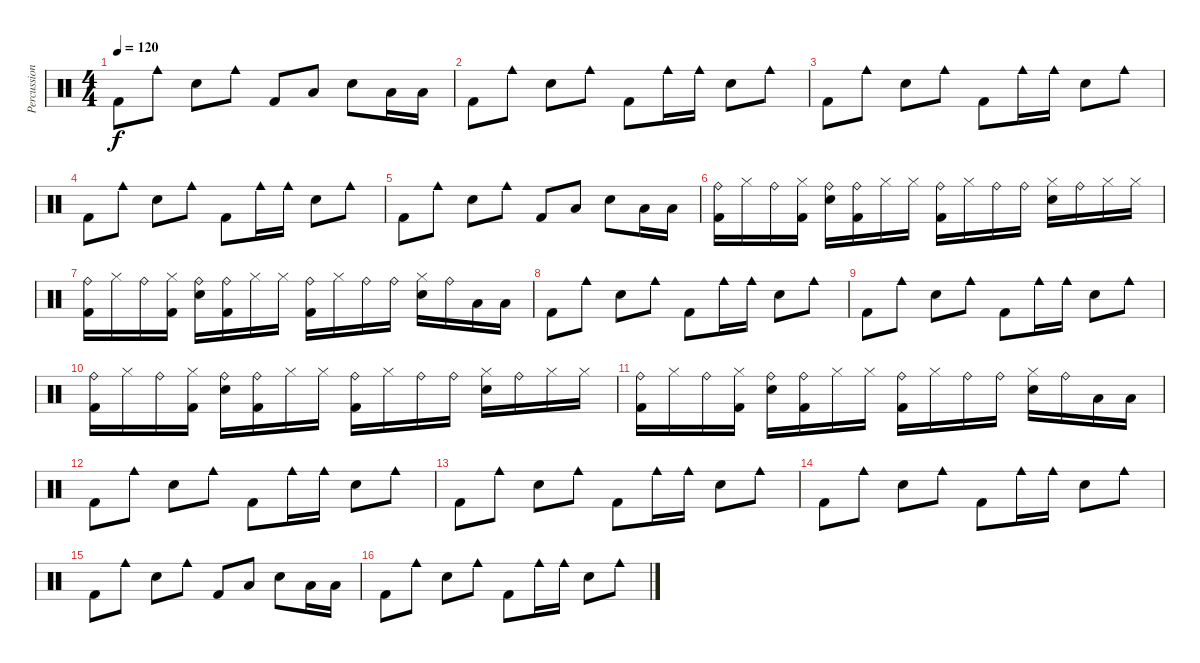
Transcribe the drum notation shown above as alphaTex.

\track ("Percussion" "Percussion") {instrument percussion}
\staff {score}
\articulation defaults
\ts (4 4)
\tempo 120
\clef neutral
\ks c "Kick (hit) 2".8{dy f} "Cowbell medium (hit)".8 "Electric Snare (hit)".8 "Cowbell medium (hit)".8 "Kick (hit) 2".8 "Low Floor Tom (hit)".8 "Electric Snare (hit)".8 "Low Floor Tom (hit)".16 "Low Floor Tom (hit)".16
|
"Kick (hit) 2".8 "Cowbell medium (hit)".8 "Electric Snare (hit)".8 "Cowbell medium (hit)".8 "Kick (hit) 2".8 "Cowbell medium (hit)".16 "Cowbell medium (hit)".16 "Electric Snare (hit)".8 "Cowbell medium (hit)".8 |
"Kick (hit) 2".8 "Cowbell medium (hit)".8 "Electric Snare (hit)".8 "Cowbell medium (hit)".8 "Kick (hit) 2".8 "Cowbell medium (hit)".16 "Cowbell medium (hit)".16 "Electric Snare (hit)".8 "Cowbell medium (hit)".8 |
"Kick (hit) 2".8 "Cowbell medium (hit)".8 "Electric Snare (hit)".8 "Cowbell medium (hit)".8 "Kick (hit) 2".8 "Cowbell medium (hit)".16 "Cowbell medium (hit)".16 "Electric Snare (hit)".8 "Cowbell medium (hit)".8 |
"Kick (hit) 2".8 "Cowbell medium (hit)".8 "Electric Snare (hit)".8 "Cowbell medium (hit)".8 "Kick (hit) 2".8 "Low Floor Tom (hit)".8 "Electric Snare (hit)".8 "Low Floor Tom (hit)".16 "Low Floor Tom (hit)".16 |
("Kick (hit) 2" "Ride (bell)").16 "Hi-Hat (closed)".16 "Ride (bell)".16 ("Kick (hit) 2" "Hi-Hat (closed)").16 ("Snare (hit) 2" "Ride (bell)").16 ("Ride (bell)" "Kick (hit) 2").16 "Hi-Hat (closed)".16 "Hi-Hat (closed)".16 ("Kick (hit) 2" "Ride (bell)").16 "Hi-Hat (closed)".16 "Ride (bell)".16 "Ride (bell)".16 ("Hi-Hat (closed)" "Snare (hit) 2").16 "Ride (bell)".16 "Hi-Hat (closed)".16 "Hi-Hat (closed)".16 |
("Kick (hit) 2" "Ride (bell)").16 "Hi-Hat (closed)".16 "Ride (bell)".16 ("Kick (hit) 2" "Hi-Hat (closed)").16 ("Snare (hit) 2" "Ride (bell)").16 ("Ride (bell)" "Kick (hit) 2").16 "Hi-Hat (closed)".16 "Hi-Hat (closed)".16 ("Kick (hit) 2" "Ride (bell)").16 "Hi-Hat (closed)".16 "Ride (bell)".16 "Ride (bell)".16 ("Hi-Hat (closed)" "Snare (hit) 2").16 "Ride (bell)".16 "Low Floor Tom (hit)".16 "Low Floor Tom (hit)".16 |
"Kick (hit) 2".8 "Cowbell medium (hit)".8 "Electric Snare (hit)".8 "Cowbell medium (hit)".8 "Kick (hit) 2".8 "Cowbell medium (hit)".16 "Cowbell medium (hit)".16 "Electric Snare (hit)".8 "Cowbell medium (hit)".8 |
"Kick (hit) 2".8 "Cowbell medium (hit)".8 "Electric Snare (hit)".8 "Cowbell medium (hit)".8 "Kick (hit) 2".8 "Cowbell medium (hit)".16 "Cowbell medium (hit)".16 "Electric Snare (hit)".8 "Cowbell medium (hit)".8 |
("Kick (hit) 2" "Ride (bell)").16 "Hi-Hat (closed)".16 "Ride (bell)".16 ("Kick (hit) 2" "Hi-Hat (closed)").16 ("Snare (hit) 2" "Ride (bell)").16 ("Ride (bell)" "Kick (hit) 2").16 "Hi-Hat (closed)".16 "Hi-Hat (closed)".16 ("Kick (hit) 2" "Ride (bell)").16 "Hi-Hat (closed)".16 "Ride (bell)".16 "Ride (bell)".16 ("Hi-Hat (closed)" "Snare (hit) 2").16 "Ride (bell)".16 "Hi-Hat (closed)".16 "Hi-Hat (closed)".16 |
("Kick (hit) 2" "Ride (bell)").16 "Hi-Hat (closed)".16 "Ride (bell)".16 ("Kick (hit) 2" "Hi-Hat (closed)").16 ("Snare (hit) 2" "Ride (bell)").16 ("Ride (bell)" "Kick (hit) 2").16 "Hi-Hat (closed)".16 "Hi-Hat (closed)".16 ("Kick (hit) 2" "Ride (bell)").16 "Hi-Hat (closed)".16 "Ride (bell)".16 "Ride (bell)".16 ("Hi-Hat (closed)" "Snare (hit) 2").16 "Ride (bell)".16 "Low Floor Tom (hit)".16 "Low Floor Tom (hit)".16 |
"Kick (hit) 2".8 "Cowbell medium (hit)".8 "Electric Snare (hit)".8 "Cowbell medium (hit)".8 "Kick (hit) 2".8 "Cowbell medium (hit)".16 "Cowbell medium (hit)".16 "Electric Snare (hit)".8 "Cowbell medium (hit)".8 |
"Kick (hit) 2".8 "Cowbell medium (hit)".8 "Electric Snare (hit)".8 "Cowbell medium (hit)".8 "Kick (hit) 2".8 "Cowbell medium (hit)".16 "Cowbell medium (hit)".16 "Electric Snare (hit)".8 "Cowbell medium (hit)".8 |
"Kick (hit) 2".8 "Cowbell medium (hit)".8 "Electric Snare (hit)".8 "Cowbell medium (hit)".8 "Kick (hit) 2".8 "Cowbell medium (hit)".16 "Cowbell medium (hit)".16 "Electric Snare (hit)".8 "Cowbell medium (hit)".8 |
"Kick (hit) 2".8 "Cowbell medium (hit)".8 "Electric Snare (hit)".8 "Cowbell medium (hit)".8 "Kick (hit) 2".8 "Low Floor Tom (hit)".8 "Electric Snare (hit)".8 "Low Floor Tom (hit)".16 "Low Floor Tom (hit)".16 |
"Kick (hit) 2".8 "Cowbell medium (hit)".8 "Electric Snare (hit)".8 "Cowbell medium (hit)".8 "Kick (hit) 2".8 "Cowbell medium (hit)".16 "Cowbell medium (hit)".16 "Electric Snare (hit)".8 "Cowbell medium (hit)".8
